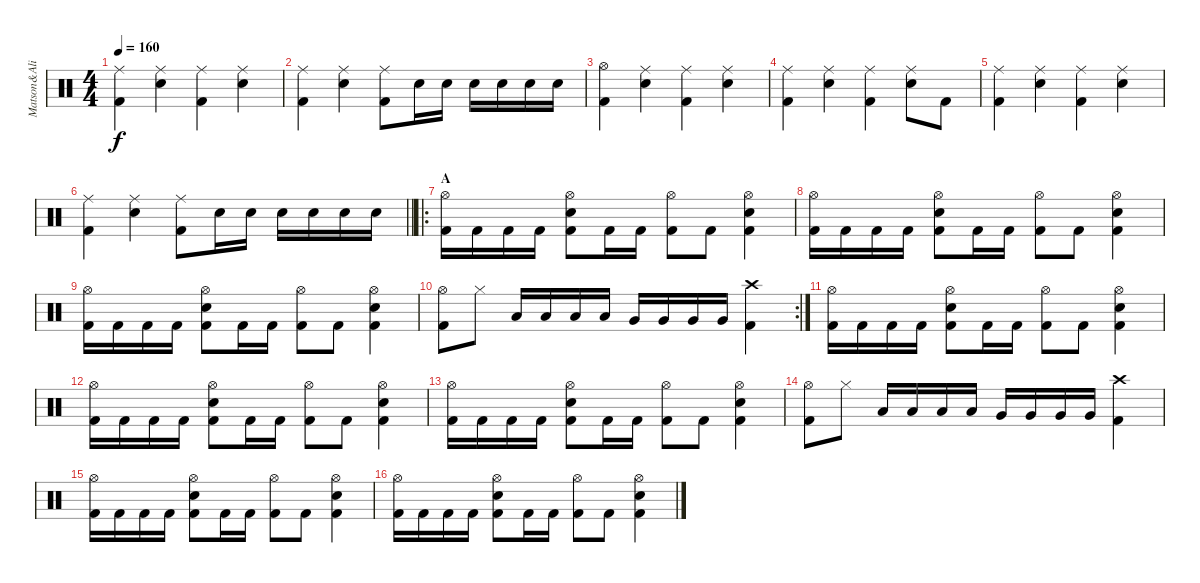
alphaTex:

\track ("Matson&Ali" "Matson&Ali") {instrument percussion}
\staff {score}
\articulation defaults
\ts (4 4)
\tempo 160
\clef neutral
\ks c
("Ride (middle)" "Kick (hit) 2").4{dy f} ("Ride (middle)" "Snare (hit) 2").4 ("Ride (middle)" "Kick (hit) 2").4 ("Ride (middle)" "Snare (hit) 2").4 |
("Ride (middle)" "Kick (hit) 2").4 ("Ride (middle)" "Snare (hit) 2").4 ("Ride (middle)" "Kick (hit) 2").8 "Snare (hit) 2".16 "Snare (hit) 2".16 "Snare (hit) 2".16 "Snare (hit) 2".16 "Snare (hit) 2".16 "Snare (hit) 2".16 |
("Hi-Hat (open)" "Kick (hit) 2").4 ("Ride (middle)" "Snare (hit) 2").4 ("Ride (middle)" "Kick (hit) 2").4 ("Ride (middle)" "Snare (hit) 2").4 |
("Ride (middle)" "Kick (hit) 2").4 ("Ride (middle)" "Snare (hit) 2").4 ("Ride (middle)" "Kick (hit) 2").4 ("Ride (middle)" "Snare (hit) 2").8 "Kick (hit) 2".8 |
("Ride (middle)" "Kick (hit) 2").4 ("Ride (middle)" "Snare (hit) 2").4 ("Ride (middle)" "Kick (hit) 2").4 ("Ride (middle)" "Snare (hit) 2").4 |
\barLineRight lightlight
("Ride (middle)" "Kick (hit) 2").4 ("Ride (middle)" "Snare (hit) 2").4 ("Ride (middle)" "Kick (hit) 2").8 "Snare (hit) 2".16 "Snare (hit) 2".16 "Snare (hit) 2".16 "Snare (hit) 2".16 "Snare (hit) 2".16 "Snare (hit) 2".16 |
\ro
\section ("" "A")
("Hi-Hat (open)" "Kick (hit) 2").16 "Kick (hit) 2".16 "Kick (hit) 2".16 "Kick (hit) 2".16 ("Hi-Hat (open)" "Snare (hit) 2" "Kick (hit) 2").8 "Kick (hit) 2".16 "Kick (hit) 2".16 ("Hi-Hat (open)" "Kick (hit) 2").8 "Kick (hit) 2".8 ("Hi-Hat (open)" "Snare (hit) 2" "Kick (hit) 2").4 |
("Hi-Hat (open)" "Kick (hit) 2").16 "Kick (hit) 2".16 "Kick (hit) 2".16 "Kick (hit) 2".16 ("Hi-Hat (open)" "Snare (hit) 2" "Kick (hit) 2").8 "Kick (hit) 2".16 "Kick (hit) 2".16 ("Hi-Hat (open)" "Kick (hit) 2").8 "Kick (hit) 2".8 ("Hi-Hat (open)" "Snare (hit) 2" "Kick (hit) 2").4 |
("Hi-Hat (open)" "Kick (hit) 2").16 "Kick (hit) 2".16 "Kick (hit) 2".16 "Kick (hit) 2".16 ("Hi-Hat (open)" "Snare (hit) 2" "Kick (hit) 2").8 "Kick (hit) 2".16 "Kick (hit) 2".16 ("Hi-Hat (open)" "Kick (hit) 2").8 "Kick (hit) 2".8 ("Hi-Hat (open)" "Snare (hit) 2" "Kick (hit) 2").4 |
\rc 2
("Hi-Hat (open)" "Kick (hit) 2").8 "Hi-Hat (closed)".8 "Low Tom (hit)".16 "Low Tom (hit)".16 "Low Tom (hit)".16 "Low Tom (hit)".16 "Very Low Tom (hit)".16 "Very Low Tom (hit)".16 "Very Low Tom (hit)".16 "Very Low Tom (hit)".16 ("Crash high (hit)" "Kick (hit) 2").4 |
("Hi-Hat (open)" "Kick (hit) 2").16 "Kick (hit) 2".16 "Kick (hit) 2".16 "Kick (hit) 2".16 ("Hi-Hat (open)" "Snare (hit) 2" "Kick (hit) 2").8 "Kick (hit) 2".16 "Kick (hit) 2".16 ("Hi-Hat (open)" "Kick (hit) 2").8 "Kick (hit) 2".8 ("Hi-Hat (open)" "Snare (hit) 2" "Kick (hit) 2").4 |
("Hi-Hat (open)" "Kick (hit) 2").16 "Kick (hit) 2".16 "Kick (hit) 2".16 "Kick (hit) 2".16 ("Hi-Hat (open)" "Snare (hit) 2" "Kick (hit) 2").8 "Kick (hit) 2".16 "Kick (hit) 2".16 ("Hi-Hat (open)" "Kick (hit) 2").8 "Kick (hit) 2".8 ("Hi-Hat (open)" "Snare (hit) 2" "Kick (hit) 2").4 |
("Hi-Hat (open)" "Kick (hit) 2").16 "Kick (hit) 2".16 "Kick (hit) 2".16 "Kick (hit) 2".16 ("Hi-Hat (open)" "Snare (hit) 2" "Kick (hit) 2").8 "Kick (hit) 2".16 "Kick (hit) 2".16 ("Hi-Hat (open)" "Kick (hit) 2").8 "Kick (hit) 2".8 ("Hi-Hat (open)" "Snare (hit) 2" "Kick (hit) 2").4 |
("Hi-Hat (open)" "Kick (hit) 2").8 "Hi-Hat (closed)".8 "Low Tom (hit)".16 "Low Tom (hit)".16 "Low Tom (hit)".16 "Low Tom (hit)".16 "Very Low Tom (hit)".16 "Very Low Tom (hit)".16 "Very Low Tom (hit)".16 "Very Low Tom (hit)".16 ("Crash high (hit)" "Kick (hit) 2").4 |
("Hi-Hat (open)" "Kick (hit) 2").16 "Kick (hit) 2".16 "Kick (hit) 2".16 "Kick (hit) 2".16 ("Hi-Hat (open)" "Snare (hit) 2" "Kick (hit) 2").8 "Kick (hit) 2".16 "Kick (hit) 2".16 ("Hi-Hat (open)" "Kick (hit) 2").8 "Kick (hit) 2".8 ("Hi-Hat (open)" "Snare (hit) 2" "Kick (hit) 2").4 |
("Hi-Hat (open)" "Kick (hit) 2").16 "Kick (hit) 2".16 "Kick (hit) 2".16 "Kick (hit) 2".16 ("Hi-Hat (open)" "Snare (hit) 2" "Kick (hit) 2").8 "Kick (hit) 2".16 "Kick (hit) 2".16 ("Hi-Hat (open)" "Kick (hit) 2").8 "Kick (hit) 2".8 ("Hi-Hat (open)" "Snare (hit) 2" "Kick (hit) 2").4
